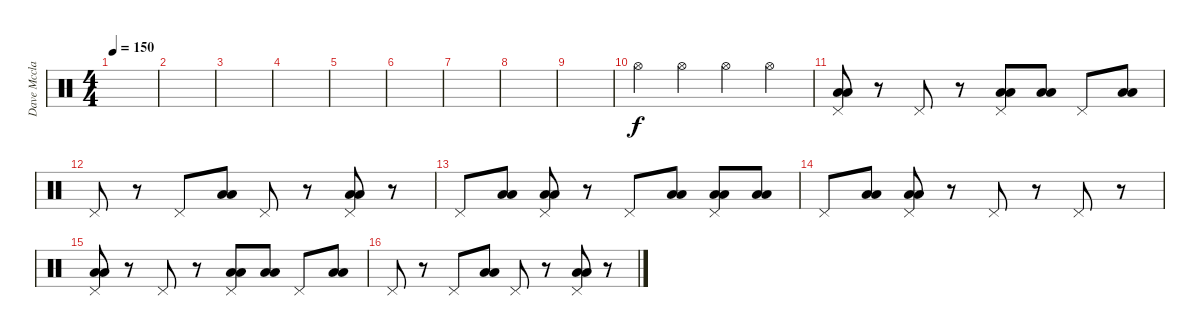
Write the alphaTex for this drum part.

\track ("Dave Mcclain" "Dave Mccla") {instrument percussion}
\staff {score}
\articulation defaults
\ts (4 4)
\tempo 150
\clef neutral
\ks c
|
|
|
|
|
|
|
|
|
"Hi-Hat (open)".4 "Hi-Hat (open)".4 "Hi-Hat (open)".4 "Hi-Hat (open)".4 |
("Low Tom (hit)" "Low Floor Tom (hit)" "Pedal Hi-Hat (hit)").8 r.8 "Pedal Hi-Hat (hit)".8 r.8 ("Low Tom (hit)" "Low Floor Tom (hit)" "Pedal Hi-Hat (hit)").8 ("Low Tom (hit)" "Low Floor Tom (hit)").8 "Pedal Hi-Hat (hit)".8 ("Low Tom (hit)" "Low Floor Tom (hit)").8 |
"Pedal Hi-Hat (hit)".8 r.8 "Pedal Hi-Hat (hit)".8 ("Low Tom (hit)" "Low Floor Tom (hit)").8 "Pedal Hi-Hat (hit)".8 r.8 ("Low Tom (hit)" "Low Floor Tom (hit)" "Pedal Hi-Hat (hit)").8 r.8 |
"Pedal Hi-Hat (hit)".8 ("Low Tom (hit)" "Low Floor Tom (hit)").8 ("Low Tom (hit)" "Low Floor Tom (hit)" "Pedal Hi-Hat (hit)").8 r.8 "Pedal Hi-Hat (hit)".8 ("Low Tom (hit)" "Low Floor Tom (hit)").8 ("Low Tom (hit)" "Low Floor Tom (hit)" "Pedal Hi-Hat (hit)").8 ("Low Tom (hit)" "Low Floor Tom (hit)").8 |
"Pedal Hi-Hat (hit)".8 ("Low Tom (hit)" "Low Floor Tom (hit)").8 ("Low Tom (hit)" "Low Floor Tom (hit)" "Pedal Hi-Hat (hit)").8 r.8 "Pedal Hi-Hat (hit)".8 r.8 "Pedal Hi-Hat (hit)".8 r.8 |
("Low Tom (hit)" "Low Floor Tom (hit)" "Pedal Hi-Hat (hit)").8 r.8 "Pedal Hi-Hat (hit)".8 r.8 ("Low Tom (hit)" "Low Floor Tom (hit)" "Pedal Hi-Hat (hit)").8 ("Low Tom (hit)" "Low Floor Tom (hit)").8 "Pedal Hi-Hat (hit)".8 ("Low Tom (hit)" "Low Floor Tom (hit)").8 |
"Pedal Hi-Hat (hit)".8 r.8 "Pedal Hi-Hat (hit)".8 ("Low Tom (hit)" "Low Floor Tom (hit)").8 "Pedal Hi-Hat (hit)".8 r.8 ("Low Tom (hit)" "Low Floor Tom (hit)" "Pedal Hi-Hat (hit)").8 r.8
